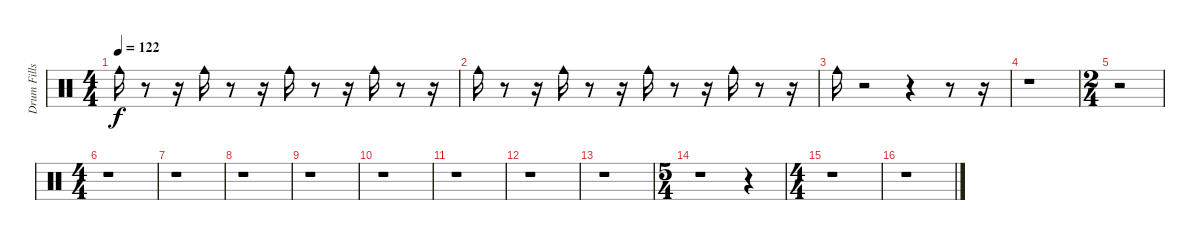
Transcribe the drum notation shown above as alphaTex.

\track ("Drum Fills etc" "Drum Fills") {instrument percussion}
\staff {score}
\articulation defaults
\ts (4 4)
\tempo 122
\clef neutral
\ks c "Cowbell medium (hit)".16{dy f}
r.8 r.16 "Cowbell medium (hit)".16 r.8 r.16 "Cowbell medium (hit)".16 r.8 r.16 "Cowbell medium (hit)".16 r.8 r.16 |
"Cowbell medium (hit)".16 r.8 r.16 "Cowbell medium (hit)".16 r.8 r.16 "Cowbell medium (hit)".16 r.8 r.16 "Cowbell medium (hit)".16 r.8 r.16 |
"Cowbell medium (hit)".16 r.2 r.4 r.8 r.16 |
r.1 |
\ts (2 4)
r.2 |
\ts (4 4)
r.1 |
r.1 |
r.1 |
r.1 |
r.1 |
r.1 |
r.1 |
r.1 |
\ts (5 4)
r.1 r.4 |
\ts (4 4)
r.1 |
r.1
